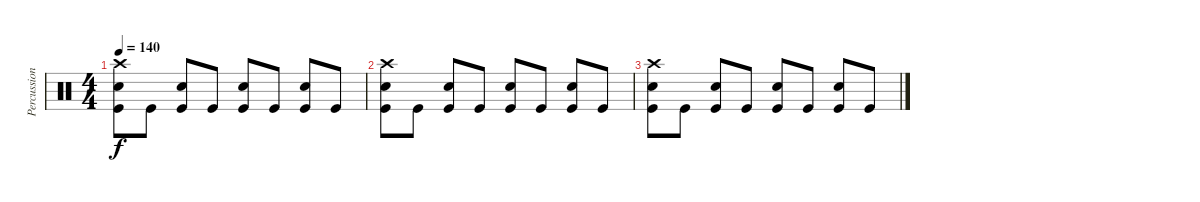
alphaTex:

\track ("Percussion" "Percussion") {instrument percussion}
\staff {score}
\articulation defaults
\ts (4 4)
\tempo 140
\clef neutral
\ks c
("Crash high (hit)" "Snare (hit) 2" "Kick (hit)").8{dy f} "Kick (hit)".8 ("Snare (hit) 2" "Kick (hit)").8 "Kick (hit)".8 ("Snare (hit) 2" "Kick (hit)").8 "Kick (hit)".8 ("Snare (hit) 2" "Kick (hit)").8 "Kick (hit)".8 |
("Crash high (hit)" "Snare (hit) 2" "Kick (hit)").8 "Kick (hit)".8 ("Snare (hit) 2" "Kick (hit)").8 "Kick (hit)".8 ("Snare (hit) 2" "Kick (hit)").8 "Kick (hit)".8 ("Snare (hit) 2" "Kick (hit)").8 "Kick (hit)".8 |
("Crash high (hit)" "Snare (hit) 2" "Kick (hit)").8 "Kick (hit)".8 ("Snare (hit) 2" "Kick (hit)").8 "Kick (hit)".8 ("Snare (hit) 2" "Kick (hit)").8 "Kick (hit)".8 ("Snare (hit) 2" "Kick (hit)").8 "Kick (hit)".8
